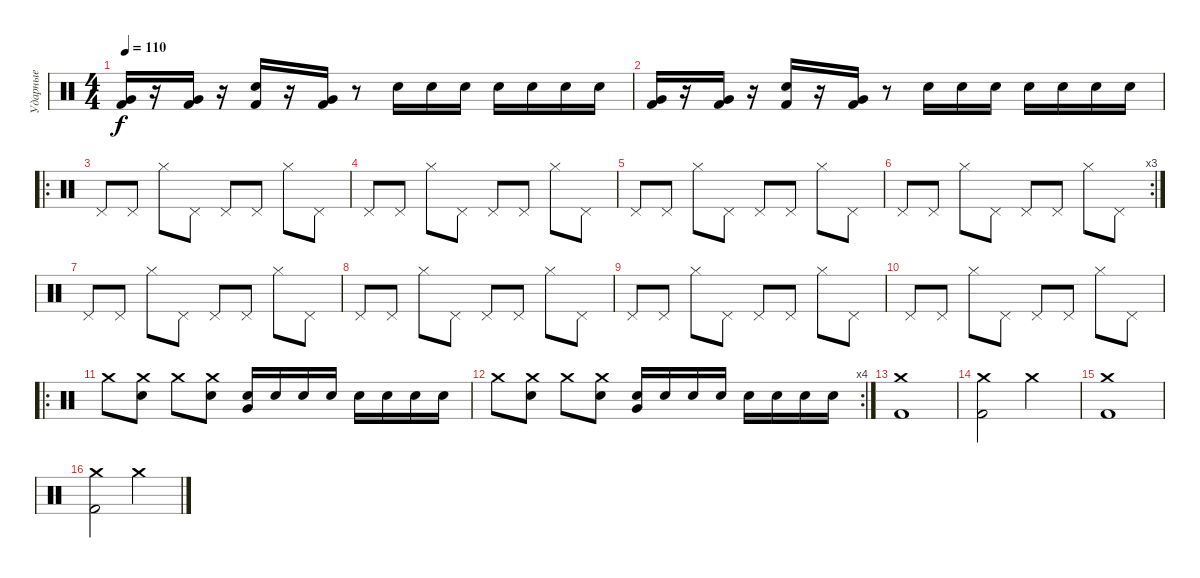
\track ("Ударные" "Ударные") {instrument percussion}
\staff {score}
\articulation defaults
\ts (4 4)
\tempo 110
\clef neutral
\ks c
("Kick (hit) 2" "Very Low Tom (hit)").16{dy f} r.16 ("Kick (hit) 2" "Very Low Tom (hit)").16 r.16 ("Kick (hit) 2" "Electric Snare (hit)").16 r.16 ("Kick (hit) 2" "Very Low Tom (hit)").16 r.8 "Electric Snare (hit)".16 "Electric Snare (hit)".16 "Electric Snare (hit)".16 "Electric Snare (hit)".16 "Electric Snare (hit)".16 "Electric Snare (hit)".16 "Electric Snare (hit)".16 |
("Kick (hit) 2" "Very Low Tom (hit)").16 r.16 ("Kick (hit) 2" "Very Low Tom (hit)").16 r.16 ("Kick (hit) 2" "Electric Snare (hit)").16 r.16 ("Kick (hit) 2" "Very Low Tom (hit)").16 r.8 "Electric Snare (hit)".16 "Electric Snare (hit)".16 "Electric Snare (hit)".16 "Electric Snare (hit)".16 "Electric Snare (hit)".16 "Electric Snare (hit)".16 "Electric Snare (hit)".16 |
\ro "Pedal Hi-Hat (hit)".8 "Pedal Hi-Hat (hit)".8 "Hi-Hat (closed)".8 "Pedal Hi-Hat (hit)".8 "Pedal Hi-Hat (hit)".8 "Pedal Hi-Hat (hit)".8 "Hi-Hat (closed)".8 "Pedal Hi-Hat (hit)".8
|
"Pedal Hi-Hat (hit)".8 "Pedal Hi-Hat (hit)".8 "Hi-Hat (closed)".8 "Pedal Hi-Hat (hit)".8 "Pedal Hi-Hat (hit)".8 "Pedal Hi-Hat (hit)".8 "Hi-Hat (closed)".8 "Pedal Hi-Hat (hit)".8 |
"Pedal Hi-Hat (hit)".8 "Pedal Hi-Hat (hit)".8 "Hi-Hat (closed)".8 "Pedal Hi-Hat (hit)".8 "Pedal Hi-Hat (hit)".8 "Pedal Hi-Hat (hit)".8 "Hi-Hat (closed)".8 "Pedal Hi-Hat (hit)".8 |
\rc 3 "Pedal Hi-Hat (hit)".8 "Pedal Hi-Hat (hit)".8 "Hi-Hat (closed)".8 "Pedal Hi-Hat (hit)".8 "Pedal Hi-Hat (hit)".8 "Pedal Hi-Hat (hit)".8 "Hi-Hat (closed)".8 "Pedal Hi-Hat (hit)".8
|
"Pedal Hi-Hat (hit)".8 "Pedal Hi-Hat (hit)".8 "Hi-Hat (closed)".8 "Pedal Hi-Hat (hit)".8 "Pedal Hi-Hat (hit)".8 "Pedal Hi-Hat (hit)".8 "Hi-Hat (closed)".8 "Pedal Hi-Hat (hit)".8 |
"Pedal Hi-Hat (hit)".8 "Pedal Hi-Hat (hit)".8 "Hi-Hat (closed)".8 "Pedal Hi-Hat (hit)".8 "Pedal Hi-Hat (hit)".8 "Pedal Hi-Hat (hit)".8 "Hi-Hat (closed)".8 "Pedal Hi-Hat (hit)".8 |
"Pedal Hi-Hat (hit)".8 "Pedal Hi-Hat (hit)".8 "Hi-Hat (closed)".8 "Pedal Hi-Hat (hit)".8 "Pedal Hi-Hat (hit)".8 "Pedal Hi-Hat (hit)".8 "Hi-Hat (closed)".8 "Pedal Hi-Hat (hit)".8 |
"Pedal Hi-Hat (hit)".8 "Pedal Hi-Hat (hit)".8 "Hi-Hat (closed)".8 "Pedal Hi-Hat (hit)".8 "Pedal Hi-Hat (hit)".8 "Pedal Hi-Hat (hit)".8 "Hi-Hat (closed)".8 "Pedal Hi-Hat (hit)".8 |
\ro "Crash medium (hit)".8
("Crash medium (hit)" "Electric Snare (hit)").8 "Crash medium (hit)".8 ("Crash medium (hit)" "Electric Snare (hit)").8 ("Electric Snare (hit)" "Very Low Tom (hit)").16 "Electric Snare (hit)".16 "Electric Snare (hit)".16 "Electric Snare (hit)".16 "Electric Snare (hit)".16 "Electric Snare (hit)".16 "Electric Snare (hit)".16 "Electric Snare (hit)".16 |
\rc 4 "Crash medium (hit)".8
("Crash medium (hit)" "Electric Snare (hit)").8 "Crash medium (hit)".8 ("Crash medium (hit)" "Electric Snare (hit)").8 ("Electric Snare (hit)" "Very Low Tom (hit)").16 "Electric Snare (hit)".16 "Electric Snare (hit)".16 "Electric Snare (hit)".16 "Electric Snare (hit)".16 "Electric Snare (hit)".16 "Electric Snare (hit)".16 "Electric Snare (hit)".16 |
("Crash medium (hit)" "Kick (hit) 2").1 |
("Crash medium (hit)" "Kick (hit) 2").2 "Crash medium (hit)".2 |
("Crash medium (hit)" "Kick (hit) 2").1 |
("Crash medium (hit)" "Kick (hit) 2").2 "Crash medium (hit)".2
